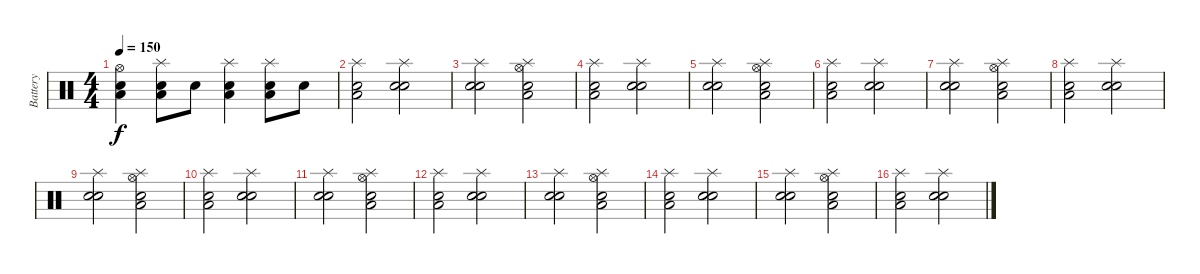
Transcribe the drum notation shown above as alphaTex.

\track ("Battery" "Battery") {instrument percussion}
\staff {score}
\articulation defaults
\ts (4 4)
\tempo 150
\clef neutral
\ks c
("Snare (hit) 2" "Low Floor Tom (hit)" "Hi-Hat (open)").4{dy f} ("Snare (hit) 2" "Low Floor Tom (hit)" "Splash (hit)").8 "Snare (hit) 2".8 ("Snare (hit) 2" "Low Floor Tom (hit)" "Splash (hit)").4 ("Snare (hit) 2" "Low Floor Tom (hit)" "Splash (hit)").8 "Snare (hit) 2".8 |
("Snare (hit) 2" "Low Floor Tom (hit)" "Splash (hit)").2 ("Snare (hit) 2" "Electric Snare (hit)" "Splash (hit)").2 |
("Snare (hit) 2" "Electric Snare (hit)" "Splash (hit)").2 ("Snare (hit) 2" "Low Floor Tom (hit)" "Splash (hit)" "Hi-Hat (open)").2 |
("Snare (hit) 2" "Low Floor Tom (hit)" "Splash (hit)").2 ("Snare (hit) 2" "Electric Snare (hit)" "Splash (hit)").2 |
("Snare (hit) 2" "Electric Snare (hit)" "Splash (hit)").2 ("Snare (hit) 2" "Low Floor Tom (hit)" "Splash (hit)" "Hi-Hat (open)").2 |
("Snare (hit) 2" "Low Floor Tom (hit)" "Splash (hit)").2 ("Snare (hit) 2" "Electric Snare (hit)" "Splash (hit)").2 |
("Snare (hit) 2" "Electric Snare (hit)" "Splash (hit)").2 ("Snare (hit) 2" "Low Floor Tom (hit)" "Splash (hit)" "Hi-Hat (open)").2 |
("Snare (hit) 2" "Low Floor Tom (hit)" "Splash (hit)").2 ("Snare (hit) 2" "Electric Snare (hit)" "Splash (hit)").2 |
("Snare (hit) 2" "Electric Snare (hit)" "Splash (hit)").2 ("Snare (hit) 2" "Low Floor Tom (hit)" "Splash (hit)" "Hi-Hat (open)").2 |
("Snare (hit) 2" "Low Floor Tom (hit)" "Splash (hit)").2 ("Snare (hit) 2" "Electric Snare (hit)" "Splash (hit)").2 |
("Snare (hit) 2" "Electric Snare (hit)" "Splash (hit)").2 ("Snare (hit) 2" "Low Floor Tom (hit)" "Splash (hit)" "Hi-Hat (open)").2 |
("Snare (hit) 2" "Low Floor Tom (hit)" "Splash (hit)").2 ("Snare (hit) 2" "Electric Snare (hit)" "Splash (hit)").2 |
("Snare (hit) 2" "Electric Snare (hit)" "Splash (hit)").2 ("Snare (hit) 2" "Low Floor Tom (hit)" "Splash (hit)" "Hi-Hat (open)").2 |
("Snare (hit) 2" "Low Floor Tom (hit)" "Splash (hit)").2 ("Snare (hit) 2" "Electric Snare (hit)" "Splash (hit)").2 |
("Snare (hit) 2" "Electric Snare (hit)" "Splash (hit)").2 ("Snare (hit) 2" "Low Floor Tom (hit)" "Splash (hit)" "Hi-Hat (open)").2 |
("Snare (hit) 2" "Low Floor Tom (hit)" "Splash (hit)").2 ("Snare (hit) 2" "Electric Snare (hit)" "Splash (hit)").2
